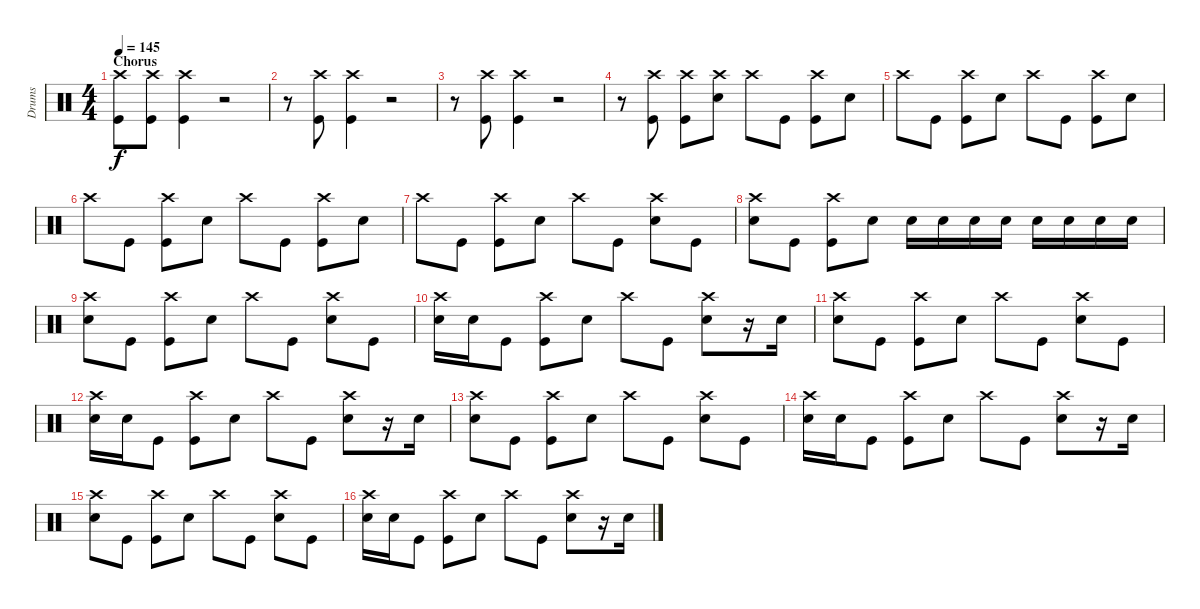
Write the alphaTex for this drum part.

\track ("Drums" "Drums") {instrument percussion}
\staff {score}
\articulation defaults
\ts (4 4)
\section ("" "Chorus")
\tempo 145
\clef neutral
\ks c
("Crash high (hit)" "Kick (hit)").8{dy f} ("Crash high (hit)" "Kick (hit)").8 ("Crash high (hit)" "Kick (hit)").4 r.2 |
r.8 ("Crash high (hit)" "Kick (hit)").8 ("Crash high (hit)" "Kick (hit)").4 r.2 |
r.8 ("Crash high (hit)" "Kick (hit)").8 ("Crash high (hit)" "Kick (hit)").4 r.2 |
r.8 ("Crash high (hit)" "Kick (hit)").8 ("Crash high (hit)" "Kick (hit)").8 ("Crash high (hit)" "Electric Snare (hit)").8 "Crash high (hit)".8 "Kick (hit)".8 ("Crash high (hit)" "Kick (hit)").8 "Electric Snare (hit)".8 |
"Crash high (hit)".8 "Kick (hit)".8 ("Crash high (hit)" "Kick (hit)").8 "Electric Snare (hit)".8 "Crash high (hit)".8 "Kick (hit)".8 ("Crash high (hit)" "Kick (hit)").8 "Electric Snare (hit)".8 |
"Crash high (hit)".8 "Kick (hit)".8 ("Crash high (hit)" "Kick (hit)").8 "Electric Snare (hit)".8 "Crash high (hit)".8 "Kick (hit)".8 ("Crash high (hit)" "Kick (hit)").8 "Electric Snare (hit)".8 |
"Crash high (hit)".8 "Kick (hit)".8 ("Crash high (hit)" "Kick (hit)").8 "Electric Snare (hit)".8 "Crash high (hit)".8 "Kick (hit)".8 ("Crash high (hit)" "Electric Snare (hit)").8 "Kick (hit)".8 |
("Crash high (hit)" "Electric Snare (hit)").8 "Kick (hit)".8 ("Crash high (hit)" "Kick (hit)").8 "Electric Snare (hit)".8 "Electric Snare (hit)".16 "Electric Snare (hit)".16 "Electric Snare (hit)".16 "Electric Snare (hit)".16 "Electric Snare (hit)".16 "Electric Snare (hit)".16 "Electric Snare (hit)".16 "Electric Snare (hit)".16 |
("Crash high (hit)" "Electric Snare (hit)").8 "Kick (hit)".8 ("Crash high (hit)" "Kick (hit)").8 "Electric Snare (hit)".8 "Crash high (hit)".8 "Kick (hit)".8 ("Crash high (hit)" "Electric Snare (hit)").8 "Kick (hit)".8 |
("Crash high (hit)" "Electric Snare (hit)").16 "Electric Snare (hit)".16 "Kick (hit)".8 ("Crash high (hit)" "Kick (hit)").8 "Electric Snare (hit)".8 "Crash high (hit)".8 "Kick (hit)".8 ("Crash high (hit)" "Electric Snare (hit)").8 r.16 "Electric Snare (hit)".16 |
("Crash high (hit)" "Electric Snare (hit)").8 "Kick (hit)".8 ("Crash high (hit)" "Kick (hit)").8 "Electric Snare (hit)".8 "Crash high (hit)".8 "Kick (hit)".8 ("Crash high (hit)" "Electric Snare (hit)").8 "Kick (hit)".8 |
("Crash high (hit)" "Electric Snare (hit)").16 "Electric Snare (hit)".16 "Kick (hit)".8 ("Crash high (hit)" "Kick (hit)").8 "Electric Snare (hit)".8 "Crash high (hit)".8 "Kick (hit)".8 ("Crash high (hit)" "Electric Snare (hit)").8 r.16 "Electric Snare (hit)".16 |
("Crash high (hit)" "Electric Snare (hit)").8 "Kick (hit)".8 ("Crash high (hit)" "Kick (hit)").8 "Electric Snare (hit)".8 "Crash high (hit)".8 "Kick (hit)".8 ("Crash high (hit)" "Electric Snare (hit)").8 "Kick (hit)".8 |
("Crash high (hit)" "Electric Snare (hit)").16 "Electric Snare (hit)".16 "Kick (hit)".8 ("Crash high (hit)" "Kick (hit)").8 "Electric Snare (hit)".8 "Crash high (hit)".8 "Kick (hit)".8 ("Crash high (hit)" "Electric Snare (hit)").8 r.16 "Electric Snare (hit)".16 |
("Crash high (hit)" "Electric Snare (hit)").8 "Kick (hit)".8 ("Crash high (hit)" "Kick (hit)").8 "Electric Snare (hit)".8 "Crash high (hit)".8 "Kick (hit)".8 ("Crash high (hit)" "Electric Snare (hit)").8 "Kick (hit)".8 |
("Crash high (hit)" "Electric Snare (hit)").16 "Electric Snare (hit)".16 "Kick (hit)".8 ("Crash high (hit)" "Kick (hit)").8 "Electric Snare (hit)".8 "Crash high (hit)".8 "Kick (hit)".8 ("Crash high (hit)" "Electric Snare (hit)").8 r.16 "Electric Snare (hit)".16
